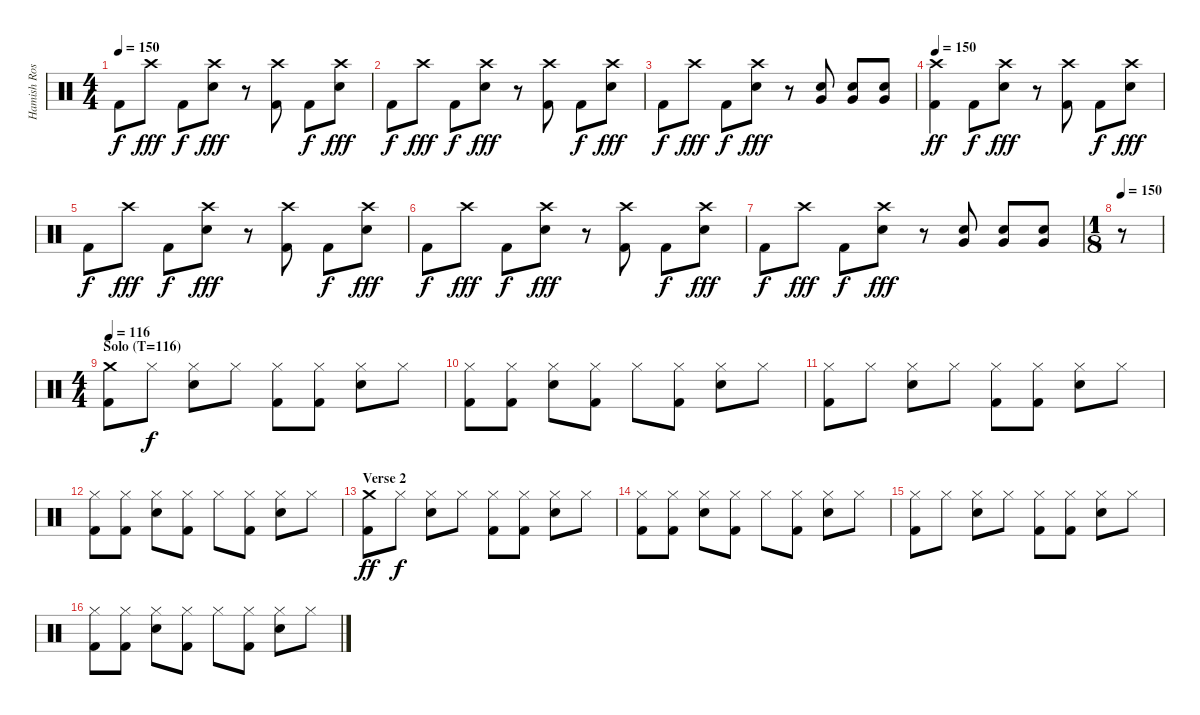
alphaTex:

\track ("Hamish Rosser" "Hamish Ros") {instrument percussion}
\staff {score}
\articulation defaults
\ts (4 4)
\tempo 150
\clef neutral
\ks c "Kick (hit) 2".8{dy f} "Crash high (hit)".8{dy fff} "Kick (hit) 2".8{dy f}
("Crash high (hit)" "Electric Snare (hit)").8{dy fff} r.8 ("Crash high (hit)" "Kick (hit) 2").8 "Kick (hit) 2".8{dy f} ("Crash high (hit)" "Electric Snare (hit)").8{dy fff} |
"Kick (hit) 2".8{dy f} "Crash high (hit)".8{dy fff} "Kick (hit) 2".8{dy f} ("Crash high (hit)" "Electric Snare (hit)").8{dy fff} r.8 ("Crash high (hit)" "Kick (hit) 2").8 "Kick (hit) 2".8{dy f} ("Crash high (hit)" "Electric Snare (hit)").8{dy fff} |
"Kick (hit) 2".8{dy f} "Crash high (hit)".8{dy fff} "Kick (hit) 2".8{dy f} ("Crash high (hit)" "Electric Snare (hit)").8{dy fff} r.8 ("Electric Snare (hit)" "Very Low Tom (hit)").8 ("Electric Snare (hit)" "Very Low Tom (hit)").8 ("Electric Snare (hit)" "Very Low Tom (hit)").8 |
\tempo 150
("Crash high (hit)" "Kick (hit) 2").4{dy ff} "Kick (hit) 2".8{dy f} ("Crash high (hit)" "Electric Snare (hit)").8{dy fff} r.8 ("Crash high (hit)" "Kick (hit) 2").8 "Kick (hit) 2".8{dy f} ("Crash high (hit)" "Electric Snare (hit)").8{dy fff} |
"Kick (hit) 2".8{dy f} "Crash high (hit)".8{dy fff} "Kick (hit) 2".8{dy f} ("Crash high (hit)" "Electric Snare (hit)").8{dy fff} r.8 ("Crash high (hit)" "Kick (hit) 2").8 "Kick (hit) 2".8{dy f} ("Crash high (hit)" "Electric Snare (hit)").8{dy fff} |
"Kick (hit) 2".8{dy f} "Crash high (hit)".8{dy fff} "Kick (hit) 2".8{dy f} ("Crash high (hit)" "Electric Snare (hit)").8{dy fff} r.8 ("Crash high (hit)" "Kick (hit) 2").8 "Kick (hit) 2".8{dy f} ("Crash high (hit)" "Electric Snare (hit)").8{dy fff} |
"Kick (hit) 2".8{dy f} "Crash high (hit)".8{dy fff} "Kick (hit) 2".8{dy f} ("Crash high (hit)" "Electric Snare (hit)").8{dy fff} r.8 ("Electric Snare (hit)" "Very Low Tom (hit)").8 ("Electric Snare (hit)" "Very Low Tom (hit)").8 ("Electric Snare (hit)" "Very Low Tom (hit)").8 |
\ts (1 8)
\tempo 150
r.8 |
\ts (4 4)
\section ("" "Solo (T=116)")
\tempo 116
("Crash medium (hit)" "Kick (hit) 2").8 "Hi-Hat (closed)".8{dy f} ("Hi-Hat (closed)" "Electric Snare (hit)").8 "Hi-Hat (closed)".8 ("Hi-Hat (closed)" "Kick (hit) 2").8 ("Hi-Hat (closed)" "Kick (hit) 2").8 ("Hi-Hat (closed)" "Electric Snare (hit)").8 "Hi-Hat (closed)".8 |
("Hi-Hat (closed)" "Kick (hit) 2").8 ("Hi-Hat (closed)" "Kick (hit) 2").8 ("Hi-Hat (closed)" "Electric Snare (hit)").8 ("Hi-Hat (closed)" "Kick (hit) 2").8 "Hi-Hat (closed)".8 ("Hi-Hat (closed)" "Kick (hit) 2").8 ("Hi-Hat (closed)" "Electric Snare (hit)").8 "Hi-Hat (closed)".8 |
("Hi-Hat (closed)" "Kick (hit) 2").8 "Hi-Hat (closed)".8 ("Hi-Hat (closed)" "Electric Snare (hit)").8 "Hi-Hat (closed)".8 ("Hi-Hat (closed)" "Kick (hit) 2").8 ("Hi-Hat (closed)" "Kick (hit) 2").8 ("Hi-Hat (closed)" "Electric Snare (hit)").8 "Hi-Hat (closed)".8 |
("Hi-Hat (closed)" "Kick (hit) 2").8 ("Hi-Hat (closed)" "Kick (hit) 2").8 ("Hi-Hat (closed)" "Electric Snare (hit)").8 ("Hi-Hat (closed)" "Kick (hit) 2").8 "Hi-Hat (closed)".8 ("Hi-Hat (closed)" "Kick (hit) 2").8 ("Hi-Hat (closed)" "Electric Snare (hit)").8 "Hi-Hat (closed)".8 |
\section ("" "Verse 2")
("Crash medium (hit)" "Kick (hit) 2").8{dy ff} "Hi-Hat (closed)".8{dy f} ("Hi-Hat (closed)" "Electric Snare (hit)").8 "Hi-Hat (closed)".8 ("Hi-Hat (closed)" "Kick (hit) 2").8 ("Hi-Hat (closed)" "Kick (hit) 2").8 ("Hi-Hat (closed)" "Electric Snare (hit)").8 "Hi-Hat (closed)".8 |
("Hi-Hat (closed)" "Kick (hit) 2").8 ("Hi-Hat (closed)" "Kick (hit) 2").8 ("Hi-Hat (closed)" "Electric Snare (hit)").8 ("Hi-Hat (closed)" "Kick (hit) 2").8 "Hi-Hat (closed)".8 ("Hi-Hat (closed)" "Kick (hit) 2").8 ("Hi-Hat (closed)" "Electric Snare (hit)").8 "Hi-Hat (closed)".8 |
("Hi-Hat (closed)" "Kick (hit) 2").8 "Hi-Hat (closed)".8 ("Hi-Hat (closed)" "Electric Snare (hit)").8 "Hi-Hat (closed)".8 ("Hi-Hat (closed)" "Kick (hit) 2").8 ("Hi-Hat (closed)" "Kick (hit) 2").8 ("Hi-Hat (closed)" "Electric Snare (hit)").8 "Hi-Hat (closed)".8 |
("Hi-Hat (closed)" "Kick (hit) 2").8 ("Hi-Hat (closed)" "Kick (hit) 2").8 ("Hi-Hat (closed)" "Electric Snare (hit)").8 ("Hi-Hat (closed)" "Kick (hit) 2").8 "Hi-Hat (closed)".8 ("Hi-Hat (closed)" "Kick (hit) 2").8 ("Hi-Hat (closed)" "Electric Snare (hit)").8 "Hi-Hat (closed)".8
